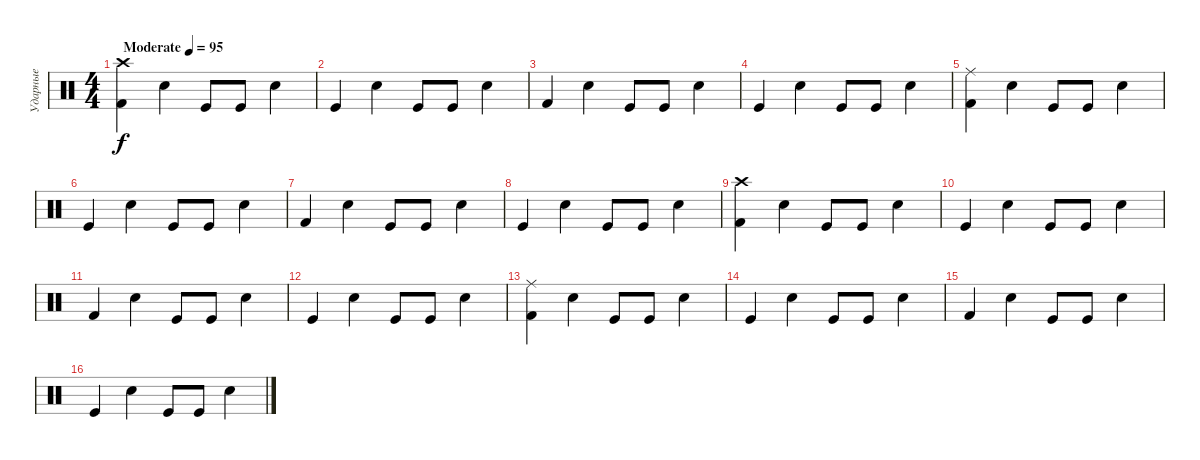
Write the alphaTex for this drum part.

\track ("Ударные" "Ударные") {instrument percussion}
\staff {score}
\articulation defaults
\ts (4 4)
\tempo (95 "Moderate")
\clef neutral
\ks c
("Crash high (hit)" "Kick (hit) 2").4{dy f} "Electric Snare (hit)".4 "Kick (hit)".8 "Kick (hit)".8 "Electric Snare (hit)".4 |
"Kick (hit)".4 "Electric Snare (hit)".4 "Kick (hit)".8 "Kick (hit)".8 "Electric Snare (hit)".4 |
"Kick (hit) 2".4 "Electric Snare (hit)".4 "Kick (hit)".8 "Kick (hit)".8 "Electric Snare (hit)".4 |
"Kick (hit)".4 "Electric Snare (hit)".4 "Kick (hit)".8 "Kick (hit)".8 "Electric Snare (hit)".4 |
("Ride (middle)" "Kick (hit) 2").4 "Electric Snare (hit)".4 "Kick (hit)".8 "Kick (hit)".8 "Electric Snare (hit)".4 |
"Kick (hit)".4 "Electric Snare (hit)".4 "Kick (hit)".8 "Kick (hit)".8 "Electric Snare (hit)".4 |
"Kick (hit) 2".4 "Electric Snare (hit)".4 "Kick (hit)".8 "Kick (hit)".8 "Electric Snare (hit)".4 |
"Kick (hit)".4 "Electric Snare (hit)".4 "Kick (hit)".8 "Kick (hit)".8 "Electric Snare (hit)".4 |
("Crash high (hit)" "Kick (hit) 2").4 "Electric Snare (hit)".4 "Kick (hit)".8 "Kick (hit)".8 "Electric Snare (hit)".4 |
"Kick (hit)".4 "Electric Snare (hit)".4 "Kick (hit)".8 "Kick (hit)".8 "Electric Snare (hit)".4 |
"Kick (hit) 2".4 "Electric Snare (hit)".4 "Kick (hit)".8 "Kick (hit)".8 "Electric Snare (hit)".4 |
"Kick (hit)".4 "Electric Snare (hit)".4 "Kick (hit)".8 "Kick (hit)".8 "Electric Snare (hit)".4 |
("Ride (middle)" "Kick (hit) 2").4 "Electric Snare (hit)".4 "Kick (hit)".8 "Kick (hit)".8 "Electric Snare (hit)".4 |
"Kick (hit)".4 "Electric Snare (hit)".4 "Kick (hit)".8 "Kick (hit)".8 "Electric Snare (hit)".4 |
"Kick (hit) 2".4 "Electric Snare (hit)".4 "Kick (hit)".8 "Kick (hit)".8 "Electric Snare (hit)".4 |
"Kick (hit)".4 "Electric Snare (hit)".4 "Kick (hit)".8 "Kick (hit)".8 "Electric Snare (hit)".4
